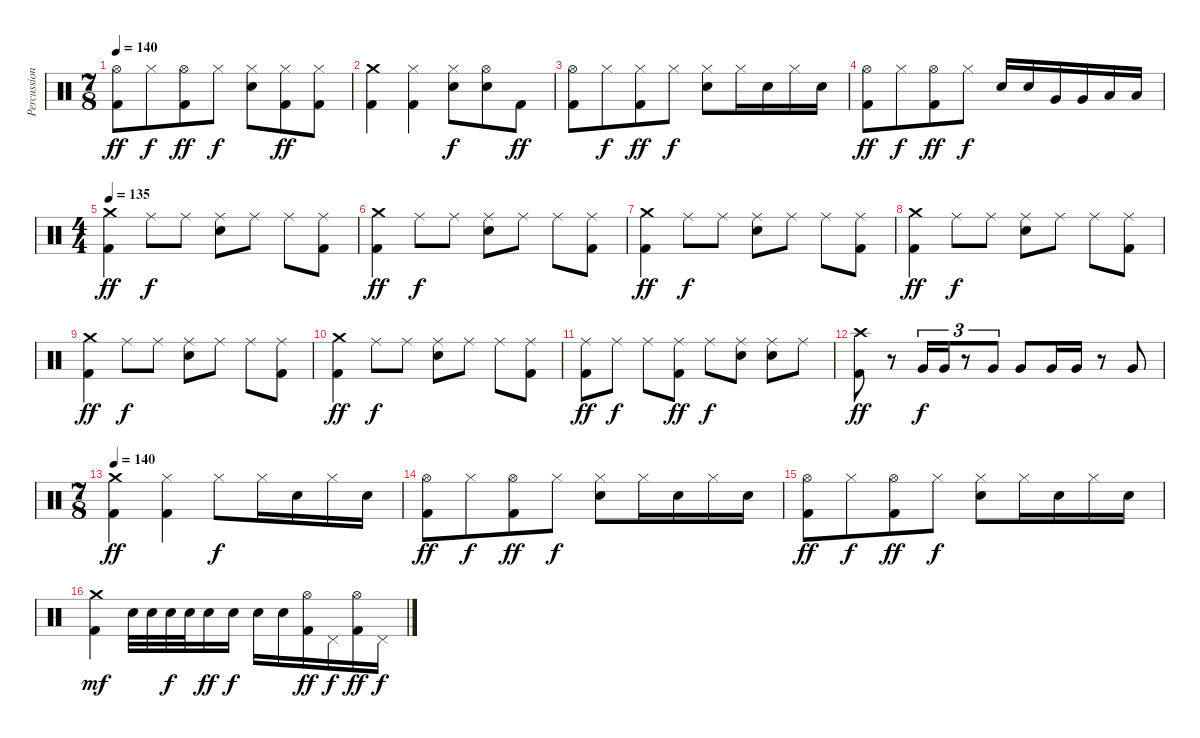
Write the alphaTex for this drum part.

\track ("Percussion" "Percussion") {instrument percussion}
\staff {score}
\articulation defaults
\ts (7 8)
\tempo 140
\clef neutral
\ks c
("Kick (hit) 2" "Hi-Hat (open)").8{dy ff} "Hi-Hat (closed)".8{dy f} ("Kick (hit) 2" "Hi-Hat (open)").8{dy ff} "Hi-Hat (closed)".8{dy f} ("Snare (hit) 2" "Hi-Hat (closed)").8 ("Kick (hit) 2" "Hi-Hat (closed)").8{dy ff} ("Kick (hit) 2" "Hi-Hat (closed)").8 |
("Kick (hit) 2" "Crash medium (hit)").4 ("Kick (hit) 2" "Hi-Hat (closed)").4 ("Snare (hit) 2" "Hi-Hat (closed)").8{dy f} ("Snare (hit) 2" "Hi-Hat (open)").8 "Kick (hit) 2".8{dy ff} |
("Kick (hit) 2" "Hi-Hat (open)").8 "Hi-Hat (closed)".8{dy f} ("Kick (hit) 2" "Hi-Hat (closed)").8{dy ff} "Hi-Hat (closed)".8{dy f} ("Snare (hit) 2" "Hi-Hat (closed)").8 "Hi-Hat (closed)".16 "Snare (hit) 2".16 "Hi-Hat (closed)".16 "Snare (hit) 2".16 |
("Kick (hit) 2" "Hi-Hat (open)").8{dy ff} "Hi-Hat (closed)".8{dy f} ("Kick (hit) 2" "Hi-Hat (open)").8{dy ff} "Hi-Hat (closed)".8{dy f} "Snare (hit) 2".16 "Snare (hit) 2".16 "Very Low Tom (hit)".16 "Very Low Tom (hit)".16 "Low Floor Tom (hit)".16 "Low Floor Tom (hit)".16 |
\ts (4 4)
\tempo 135
("Kick (hit) 2" "Crash medium (hit)").4{dy ff} "Ride (middle)".8{dy f} "Ride (middle)".8 ("Snare (hit) 2" "Ride (middle)").8 "Ride (middle)".8 "Ride (middle)".8 ("Kick (hit) 2" "Ride (middle)").8 |
("Kick (hit) 2" "Crash medium (hit)").4{dy ff} "Ride (middle)".8{dy f} "Ride (middle)".8 ("Snare (hit) 2" "Ride (middle)").8 "Ride (middle)".8 "Ride (middle)".8 ("Kick (hit) 2" "Ride (middle)").8 |
("Kick (hit) 2" "Crash medium (hit)").4{dy ff} "Ride (middle)".8{dy f} "Ride (middle)".8 ("Snare (hit) 2" "Ride (middle)").8 "Ride (middle)".8 "Ride (middle)".8 ("Kick (hit) 2" "Ride (middle)").8 |
("Kick (hit) 2" "Crash medium (hit)").4{dy ff} "Ride (middle)".8{dy f} "Ride (middle)".8 ("Snare (hit) 2" "Ride (middle)").8 "Ride (middle)".8 "Ride (middle)".8 ("Kick (hit) 2" "Ride (middle)").8 |
("Kick (hit) 2" "Crash medium (hit)").4{dy ff} "Ride (middle)".8{dy f} "Ride (middle)".8 ("Snare (hit) 2" "Ride (middle)").8 "Ride (middle)".8 "Ride (middle)".8 ("Kick (hit) 2" "Ride (middle)").8 |
("Kick (hit) 2" "Crash medium (hit)").4{dy ff} "Ride (middle)".8{dy f} "Ride (middle)".8 ("Snare (hit) 2" "Ride (middle)").8 "Ride (middle)".8 "Ride (middle)".8 ("Kick (hit) 2" "Ride (middle)").8 |
("Kick (hit) 2" "Ride (middle)").8{dy ff} "Ride (middle)".8{dy f} "Ride (middle)".8 ("Kick (hit) 2" "Ride (middle)").8{dy ff} "Ride (middle)".8{dy f} ("Snare (hit) 2" "Ride (middle)").8 ("Snare (hit) 2" "Ride (middle)").8 "Ride (middle)".8 |
("Kick (hit) 2" "Crash high (hit)").8{dy ff} r.8 "Very Low Tom (hit)".16{tu (3 2) dy f} "Very Low Tom (hit)".16{tu (3 2)} r.8{tu (3 2)} "Very Low Tom (hit)".8{tu (3 2)} "Very Low Tom (hit)".8 "Very Low Tom (hit)".16 "Very Low Tom (hit)".16 r.8 "Very Low Tom (hit)".8 |
\ts (7 8)
\tempo 140
("Kick (hit) 2" "Crash medium (hit)").4{dy ff} ("Kick (hit) 2" "Hi-Hat (closed)").4 "Hi-Hat (closed)".8{dy f} "Hi-Hat (closed)".16 "Snare (hit) 2".16 "Hi-Hat (closed)".16 "Snare (hit) 2".16 |
("Kick (hit) 2" "Hi-Hat (open)").8{dy ff} "Hi-Hat (closed)".8{dy f} ("Kick (hit) 2" "Hi-Hat (open)").8{dy ff} "Hi-Hat (closed)".8{dy f} ("Snare (hit) 2" "Hi-Hat (closed)").8 "Hi-Hat (closed)".16 "Snare (hit) 2".16 "Hi-Hat (closed)".16 "Snare (hit) 2".16 |
("Kick (hit) 2" "Hi-Hat (open)").8{dy ff} "Hi-Hat (closed)".8{dy f} ("Kick (hit) 2" "Hi-Hat (open)").8{dy ff} "Hi-Hat (closed)".8{dy f} ("Snare (hit) 2" "Hi-Hat (closed)").8 "Hi-Hat (closed)".16 "Snare (hit) 2".16 "Hi-Hat (closed)".16 "Snare (hit) 2".16 |
("Kick (hit) 2" "Crash medium (hit)").4{dy mf} "Snare (hit) 2".32 "Snare (hit) 2".32 "Snare (hit) 2".32{dy f} "Snare (hit) 2".32 "Snare (hit) 2".16{dy ff} "Snare (hit) 2".16{dy f} "Snare (hit) 2".16 "Snare (hit) 2".16 ("Kick (hit) 2" "Hi-Hat (open)").16{dy ff} "Pedal Hi-Hat (hit)".16{dy f} ("Kick (hit) 2" "Hi-Hat (open)").16{dy ff} "Pedal Hi-Hat (hit)".16{dy f}
